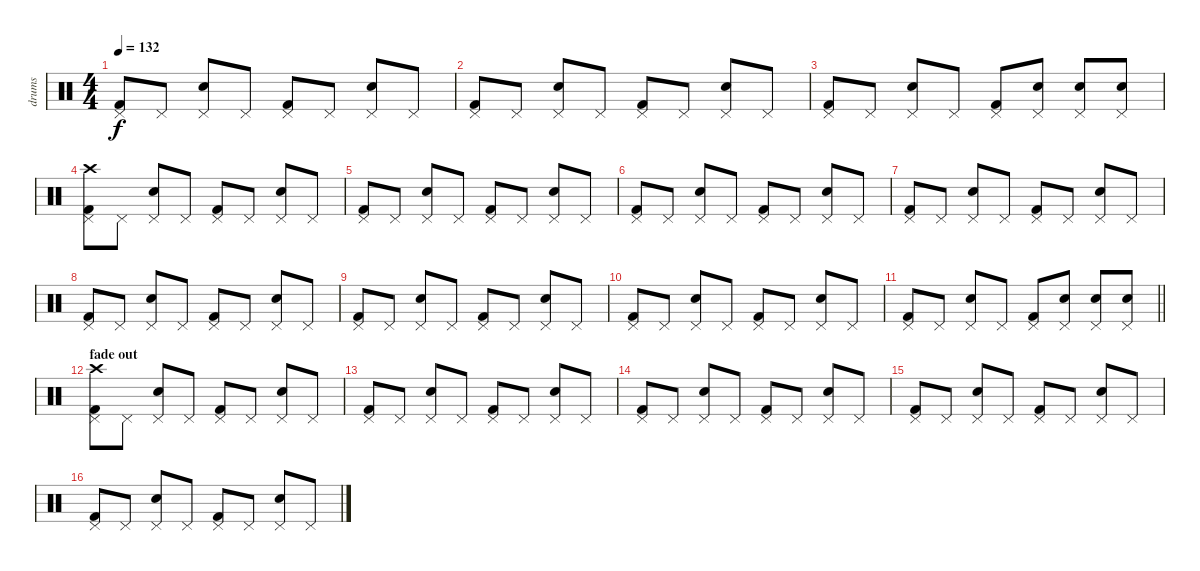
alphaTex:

\track ("drums" "drums") {instrument percussion}
\staff {score}
\articulation defaults
\ts (4 4)
\tempo 132
\clef neutral
\ks c
("Kick (hit) 2" "Pedal Hi-Hat (hit)").8{dy f} "Pedal Hi-Hat (hit)".8 ("Electric Snare (hit)" "Pedal Hi-Hat (hit)").8 "Pedal Hi-Hat (hit)".8 ("Kick (hit) 2" "Pedal Hi-Hat (hit)").8 "Pedal Hi-Hat (hit)".8 ("Electric Snare (hit)" "Pedal Hi-Hat (hit)").8 "Pedal Hi-Hat (hit)".8 |
("Kick (hit) 2" "Pedal Hi-Hat (hit)").8 "Pedal Hi-Hat (hit)".8 ("Electric Snare (hit)" "Pedal Hi-Hat (hit)").8 "Pedal Hi-Hat (hit)".8 ("Kick (hit) 2" "Pedal Hi-Hat (hit)").8 "Pedal Hi-Hat (hit)".8 ("Electric Snare (hit)" "Pedal Hi-Hat (hit)").8 "Pedal Hi-Hat (hit)".8 |
("Kick (hit) 2" "Pedal Hi-Hat (hit)").8 "Pedal Hi-Hat (hit)".8 ("Electric Snare (hit)" "Pedal Hi-Hat (hit)").8 "Pedal Hi-Hat (hit)".8 ("Kick (hit) 2" "Pedal Hi-Hat (hit)").8 ("Electric Snare (hit)" "Pedal Hi-Hat (hit)").8 ("Electric Snare (hit)" "Pedal Hi-Hat (hit)").8 ("Electric Snare (hit)" "Pedal Hi-Hat (hit)").8 |
("Kick (hit) 2" "Pedal Hi-Hat (hit)" "Crash high (hit)").8 "Pedal Hi-Hat (hit)".8 ("Electric Snare (hit)" "Pedal Hi-Hat (hit)").8 "Pedal Hi-Hat (hit)".8 ("Kick (hit) 2" "Pedal Hi-Hat (hit)").8 "Pedal Hi-Hat (hit)".8 ("Electric Snare (hit)" "Pedal Hi-Hat (hit)").8 "Pedal Hi-Hat (hit)".8 |
("Kick (hit) 2" "Pedal Hi-Hat (hit)").8 "Pedal Hi-Hat (hit)".8 ("Electric Snare (hit)" "Pedal Hi-Hat (hit)").8 "Pedal Hi-Hat (hit)".8 ("Kick (hit) 2" "Pedal Hi-Hat (hit)").8 "Pedal Hi-Hat (hit)".8 ("Electric Snare (hit)" "Pedal Hi-Hat (hit)").8 "Pedal Hi-Hat (hit)".8 |
("Kick (hit) 2" "Pedal Hi-Hat (hit)").8 "Pedal Hi-Hat (hit)".8 ("Electric Snare (hit)" "Pedal Hi-Hat (hit)").8 "Pedal Hi-Hat (hit)".8 ("Kick (hit) 2" "Pedal Hi-Hat (hit)").8 "Pedal Hi-Hat (hit)".8 ("Electric Snare (hit)" "Pedal Hi-Hat (hit)").8 "Pedal Hi-Hat (hit)".8 |
("Kick (hit) 2" "Pedal Hi-Hat (hit)").8 "Pedal Hi-Hat (hit)".8 ("Electric Snare (hit)" "Pedal Hi-Hat (hit)").8 "Pedal Hi-Hat (hit)".8 ("Kick (hit) 2" "Pedal Hi-Hat (hit)").8 "Pedal Hi-Hat (hit)".8 ("Electric Snare (hit)" "Pedal Hi-Hat (hit)").8 "Pedal Hi-Hat (hit)".8 |
("Kick (hit) 2" "Pedal Hi-Hat (hit)").8 "Pedal Hi-Hat (hit)".8 ("Electric Snare (hit)" "Pedal Hi-Hat (hit)").8 "Pedal Hi-Hat (hit)".8 ("Kick (hit) 2" "Pedal Hi-Hat (hit)").8 "Pedal Hi-Hat (hit)".8 ("Electric Snare (hit)" "Pedal Hi-Hat (hit)").8 "Pedal Hi-Hat (hit)".8 |
("Kick (hit) 2" "Pedal Hi-Hat (hit)").8 "Pedal Hi-Hat (hit)".8 ("Electric Snare (hit)" "Pedal Hi-Hat (hit)").8 "Pedal Hi-Hat (hit)".8 ("Kick (hit) 2" "Pedal Hi-Hat (hit)").8 "Pedal Hi-Hat (hit)".8 ("Electric Snare (hit)" "Pedal Hi-Hat (hit)").8 "Pedal Hi-Hat (hit)".8 |
("Kick (hit) 2" "Pedal Hi-Hat (hit)").8 "Pedal Hi-Hat (hit)".8 ("Electric Snare (hit)" "Pedal Hi-Hat (hit)").8 "Pedal Hi-Hat (hit)".8 ("Kick (hit) 2" "Pedal Hi-Hat (hit)").8 "Pedal Hi-Hat (hit)".8 ("Electric Snare (hit)" "Pedal Hi-Hat (hit)").8 "Pedal Hi-Hat (hit)".8 |
\barLineRight lightlight
("Kick (hit) 2" "Pedal Hi-Hat (hit)").8 "Pedal Hi-Hat (hit)".8 ("Electric Snare (hit)" "Pedal Hi-Hat (hit)").8 "Pedal Hi-Hat (hit)".8 ("Kick (hit) 2" "Pedal Hi-Hat (hit)").8 ("Electric Snare (hit)" "Pedal Hi-Hat (hit)").8 ("Electric Snare (hit)" "Pedal Hi-Hat (hit)").8 ("Electric Snare (hit)" "Pedal Hi-Hat (hit)").8 |
\section ("" "fade out")
("Kick (hit) 2" "Pedal Hi-Hat (hit)" "Crash high (hit)").8 "Pedal Hi-Hat (hit)".8 ("Electric Snare (hit)" "Pedal Hi-Hat (hit)").8 "Pedal Hi-Hat (hit)".8 ("Kick (hit) 2" "Pedal Hi-Hat (hit)").8 "Pedal Hi-Hat (hit)".8 ("Electric Snare (hit)" "Pedal Hi-Hat (hit)").8 "Pedal Hi-Hat (hit)".8 |
("Kick (hit) 2" "Pedal Hi-Hat (hit)").8 "Pedal Hi-Hat (hit)".8 ("Electric Snare (hit)" "Pedal Hi-Hat (hit)").8 "Pedal Hi-Hat (hit)".8 ("Kick (hit) 2" "Pedal Hi-Hat (hit)").8 "Pedal Hi-Hat (hit)".8 ("Electric Snare (hit)" "Pedal Hi-Hat (hit)").8 "Pedal Hi-Hat (hit)".8 |
("Kick (hit) 2" "Pedal Hi-Hat (hit)").8 "Pedal Hi-Hat (hit)".8 ("Electric Snare (hit)" "Pedal Hi-Hat (hit)").8 "Pedal Hi-Hat (hit)".8 ("Kick (hit) 2" "Pedal Hi-Hat (hit)").8 "Pedal Hi-Hat (hit)".8 ("Electric Snare (hit)" "Pedal Hi-Hat (hit)").8 "Pedal Hi-Hat (hit)".8 |
("Kick (hit) 2" "Pedal Hi-Hat (hit)").8 "Pedal Hi-Hat (hit)".8 ("Electric Snare (hit)" "Pedal Hi-Hat (hit)").8 "Pedal Hi-Hat (hit)".8 ("Kick (hit) 2" "Pedal Hi-Hat (hit)").8 "Pedal Hi-Hat (hit)".8 ("Electric Snare (hit)" "Pedal Hi-Hat (hit)").8 "Pedal Hi-Hat (hit)".8 |
("Kick (hit) 2" "Pedal Hi-Hat (hit)").8 "Pedal Hi-Hat (hit)".8 ("Electric Snare (hit)" "Pedal Hi-Hat (hit)").8 "Pedal Hi-Hat (hit)".8 ("Kick (hit) 2" "Pedal Hi-Hat (hit)").8 "Pedal Hi-Hat (hit)".8 ("Electric Snare (hit)" "Pedal Hi-Hat (hit)").8 "Pedal Hi-Hat (hit)".8
